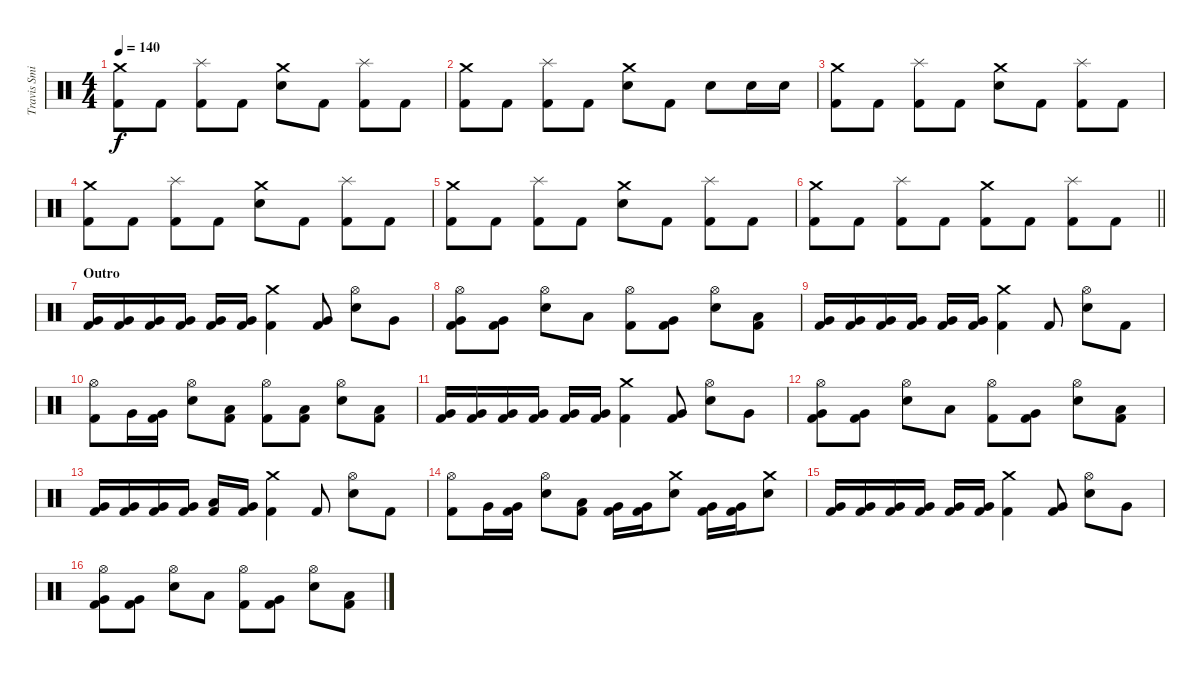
\track ("Travis Smith" "Travis Smi") {instrument percussion}
\staff {score}
\articulation defaults
\ts (4 4)
\tempo 140
\clef neutral
\ks c
("Crash medium (hit)" "Kick (hit) 2").8{dy f} "Kick (hit) 2".8 ("Splash (hit)" "Kick (hit) 2").8 "Kick (hit) 2".8 ("Crash medium (hit)" "Electric Snare (hit)").8 "Kick (hit) 2".8 ("Splash (hit)" "Kick (hit) 2").8 "Kick (hit) 2".8 |
("Crash medium (hit)" "Kick (hit) 2").8 "Kick (hit) 2".8 ("Splash (hit)" "Kick (hit) 2").8 "Kick (hit) 2".8 ("Crash medium (hit)" "Electric Snare (hit)").8 "Kick (hit) 2".8 "Electric Snare (hit)".8 "Electric Snare (hit)".16 "Electric Snare (hit)".16 |
("Crash medium (hit)" "Kick (hit) 2").8 "Kick (hit) 2".8 ("Splash (hit)" "Kick (hit) 2").8 "Kick (hit) 2".8 ("Crash medium (hit)" "Electric Snare (hit)").8 "Kick (hit) 2".8 ("Splash (hit)" "Kick (hit) 2").8 "Kick (hit) 2".8 |
("Crash medium (hit)" "Kick (hit) 2").8 "Kick (hit) 2".8 ("Splash (hit)" "Kick (hit) 2").8 "Kick (hit) 2".8 ("Crash medium (hit)" "Electric Snare (hit)").8 "Kick (hit) 2".8 ("Splash (hit)" "Kick (hit) 2").8 "Kick (hit) 2".8 |
("Crash medium (hit)" "Kick (hit) 2").8 "Kick (hit) 2".8 ("Splash (hit)" "Kick (hit) 2").8 "Kick (hit) 2".8 ("Crash medium (hit)" "Electric Snare (hit)").8 "Kick (hit) 2".8 ("Splash (hit)" "Kick (hit) 2").8 "Kick (hit) 2".8 |
\barLineRight lightlight
("Crash medium (hit)" "Kick (hit) 2").8 "Kick (hit) 2".8 ("Splash (hit)" "Kick (hit) 2").8 "Kick (hit) 2".8 ("Crash medium (hit)" "Kick (hit) 2").8 "Kick (hit) 2".8 ("Splash (hit)" "Kick (hit) 2").8 "Kick (hit) 2".8 |
\section ("" "Outro")
("Very Low Tom (hit)" "Kick (hit) 2").16 ("Very Low Tom (hit)" "Kick (hit) 2").16 ("Very Low Tom (hit)" "Kick (hit) 2").16 ("Very Low Tom (hit)" "Kick (hit) 2").16 ("Very Low Tom (hit)" "Kick (hit) 2").16 ("Very Low Tom (hit)" "Kick (hit) 2").16 ("Crash medium (hit)" "Kick (hit) 2").4 ("Very Low Tom (hit)" "Kick (hit) 2").8 ("Hi-Hat (open)" "Electric Snare (hit)").8 "Very Low Tom (hit)".8 |
("Hi-Hat (open)" "Very Low Tom (hit)" "Kick (hit) 2").8 ("Very Low Tom (hit)" "Kick (hit) 2").8 ("Hi-Hat (open)" "Electric Snare (hit)").8 "Low Floor Tom (hit)".8 ("Hi-Hat (open)" "Kick (hit) 2").8 ("Very Low Tom (hit)" "Kick (hit) 2").8 ("Hi-Hat (open)" "Electric Snare (hit)").8 ("Low Tom (hit)" "Kick (hit) 2").8 |
("Very Low Tom (hit)" "Kick (hit) 2").16 ("Very Low Tom (hit)" "Kick (hit) 2").16 ("Very Low Tom (hit)" "Kick (hit) 2").16 ("Very Low Tom (hit)" "Kick (hit) 2").16 ("Very Low Tom (hit)" "Kick (hit) 2").16 ("Very Low Tom (hit)" "Kick (hit) 2").16 ("Crash medium (hit)" "Kick (hit) 2").4 "Kick (hit) 2".8 ("Hi-Hat (open)" "Electric Snare (hit)").8 "Kick (hit) 2".8 |
("Hi-Hat (open)" "Kick (hit) 2").8 "Very Low Tom (hit)".16 ("Very Low Tom (hit)" "Kick (hit) 2").16 ("Hi-Hat (open)" "Electric Snare (hit)").8 ("Low Floor Tom (hit)" "Kick (hit) 2").8 ("Hi-Hat (open)" "Kick (hit) 2").8 ("Low Floor Tom (hit)" "Kick (hit) 2").8 ("Hi-Hat (open)" "Electric Snare (hit)").8 ("Low Floor Tom (hit)" "Kick (hit) 2").8 |
("Very Low Tom (hit)" "Kick (hit) 2").16 ("Very Low Tom (hit)" "Kick (hit) 2").16 ("Very Low Tom (hit)" "Kick (hit) 2").16 ("Very Low Tom (hit)" "Kick (hit) 2").16 ("Very Low Tom (hit)" "Kick (hit) 2").16 ("Very Low Tom (hit)" "Kick (hit) 2").16 ("Crash medium (hit)" "Kick (hit) 2").4 ("Very Low Tom (hit)" "Kick (hit) 2").8 ("Hi-Hat (open)" "Electric Snare (hit)").8 "Very Low Tom (hit)".8 |
("Hi-Hat (open)" "Very Low Tom (hit)" "Kick (hit) 2").8 ("Very Low Tom (hit)" "Kick (hit) 2").8 ("Hi-Hat (open)" "Electric Snare (hit)").8 "Low Floor Tom (hit)".8 ("Hi-Hat (open)" "Kick (hit) 2").8 ("Very Low Tom (hit)" "Kick (hit) 2").8 ("Hi-Hat (open)" "Electric Snare (hit)").8 ("Low Tom (hit)" "Kick (hit) 2").8 |
("Very Low Tom (hit)" "Kick (hit) 2").16 ("Very Low Tom (hit)" "Kick (hit) 2").16 ("Very Low Tom (hit)" "Kick (hit) 2").16 ("Very Low Tom (hit)" "Kick (hit) 2").16 ("Low Tom (hit)" "Kick (hit) 2").16 ("Very Low Tom (hit)" "Kick (hit) 2").16 ("Crash medium (hit)" "Kick (hit) 2").4 "Kick (hit) 2".8 ("Hi-Hat (open)" "Electric Snare (hit)").8 "Kick (hit) 2".8 |
("Hi-Hat (open)" "Kick (hit) 2").8 "Very Low Tom (hit)".16 ("Very Low Tom (hit)" "Kick (hit) 2").16 ("Hi-Hat (open)" "Electric Snare (hit)").8 ("Low Floor Tom (hit)" "Kick (hit) 2").8 ("Very Low Tom (hit)" "Kick (hit) 2").16 ("Very Low Tom (hit)" "Kick (hit) 2").16 ("Crash medium (hit)" "Electric Snare (hit)").8 ("Very Low Tom (hit)" "Kick (hit) 2").16 ("Very Low Tom (hit)" "Kick (hit) 2").16 ("Crash medium (hit)" "Electric Snare (hit)").8 |
("Very Low Tom (hit)" "Kick (hit) 2").16 ("Very Low Tom (hit)" "Kick (hit) 2").16 ("Very Low Tom (hit)" "Kick (hit) 2").16 ("Very Low Tom (hit)" "Kick (hit) 2").16 ("Very Low Tom (hit)" "Kick (hit) 2").16 ("Very Low Tom (hit)" "Kick (hit) 2").16 ("Crash medium (hit)" "Kick (hit) 2").4 ("Very Low Tom (hit)" "Kick (hit) 2").8 ("Hi-Hat (open)" "Electric Snare (hit)").8 "Very Low Tom (hit)".8 |
("Hi-Hat (open)" "Very Low Tom (hit)" "Kick (hit) 2").8 ("Very Low Tom (hit)" "Kick (hit) 2").8 ("Hi-Hat (open)" "Electric Snare (hit)").8 "Low Floor Tom (hit)".8 ("Hi-Hat (open)" "Kick (hit) 2").8 ("Very Low Tom (hit)" "Kick (hit) 2").8 ("Hi-Hat (open)" "Electric Snare (hit)").8 ("Low Tom (hit)" "Kick (hit) 2").8
